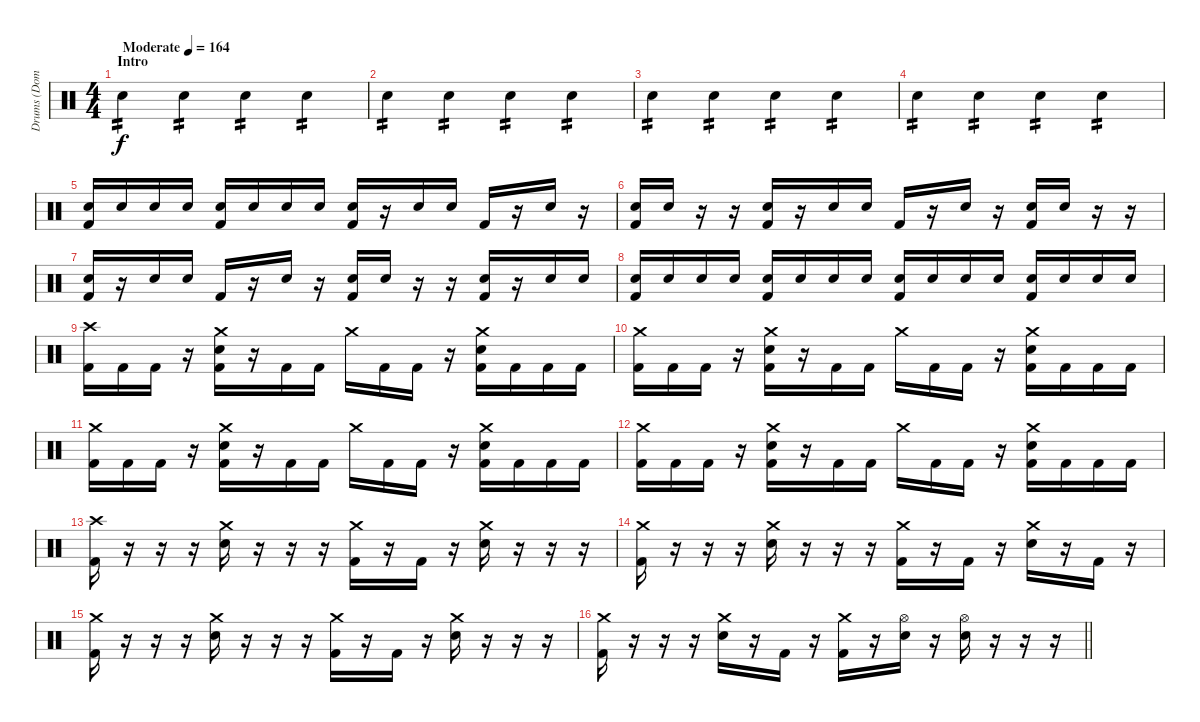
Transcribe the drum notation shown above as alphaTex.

\track ("Drums (Dominik)" "Drums (Dom") {instrument percussion}
\staff {score}
\articulation defaults
\ts (4 4)
\section ("" "Intro")
\tempo (164 "Moderate")
\clef neutral
\ks c "Electric Snare (hit)".4{tp 2 dy f} "Electric Snare (hit)".4{tp 2} "Electric Snare (hit)".4{tp 2} "Electric Snare (hit)".4{tp 2}
|
"Electric Snare (hit)".4{tp 2} "Electric Snare (hit)".4{tp 2} "Electric Snare (hit)".4{tp 2} "Electric Snare (hit)".4{tp 2} |
"Electric Snare (hit)".4{tp 2} "Electric Snare (hit)".4{tp 2} "Electric Snare (hit)".4{tp 2} "Electric Snare (hit)".4{tp 2} |
"Electric Snare (hit)".4{tp 2} "Electric Snare (hit)".4{tp 2} "Electric Snare (hit)".4{tp 2} "Electric Snare (hit)".4{tp 2} |
("Electric Snare (hit)" "Kick (hit) 2").16 "Electric Snare (hit)".16 "Electric Snare (hit)".16 "Electric Snare (hit)".16 ("Electric Snare (hit)" "Kick (hit) 2").16 "Electric Snare (hit)".16 "Electric Snare (hit)".16 "Electric Snare (hit)".16 ("Electric Snare (hit)" "Kick (hit) 2").16 r.16 "Electric Snare (hit)".16 "Electric Snare (hit)".16 "Kick (hit) 2".16 r.16 "Electric Snare (hit)".16 r.16 |
("Electric Snare (hit)" "Kick (hit) 2").16 "Electric Snare (hit)".16 r.16 r.16 ("Electric Snare (hit)" "Kick (hit) 2").16 r.16 "Electric Snare (hit)".16 "Electric Snare (hit)".16 "Kick (hit) 2".16 r.16 "Electric Snare (hit)".16 r.16 ("Electric Snare (hit)" "Kick (hit) 2").16 "Electric Snare (hit)".16 r.16 r.16 |
("Electric Snare (hit)" "Kick (hit) 2").16 r.16 "Electric Snare (hit)".16 "Electric Snare (hit)".16 "Kick (hit) 2".16 r.16 "Electric Snare (hit)".16 r.16 ("Electric Snare (hit)" "Kick (hit) 2").16 "Electric Snare (hit)".16 r.16 r.16 ("Electric Snare (hit)" "Kick (hit) 2").16 r.16 "Electric Snare (hit)".16 "Electric Snare (hit)".16 |
("Electric Snare (hit)" "Kick (hit) 2").16 "Electric Snare (hit)".16 "Electric Snare (hit)".16 "Electric Snare (hit)".16 ("Electric Snare (hit)" "Kick (hit) 2").16 "Electric Snare (hit)".16 "Electric Snare (hit)".16 "Electric Snare (hit)".16 ("Electric Snare (hit)" "Kick (hit) 2").16 "Electric Snare (hit)".16 "Electric Snare (hit)".16 "Electric Snare (hit)".16 ("Electric Snare (hit)" "Kick (hit) 2").16 "Electric Snare (hit)".16 "Electric Snare (hit)".16 "Electric Snare (hit)".16 |
("Crash high (hit)" "Kick (hit) 2").16 "Kick (hit) 2".16 "Kick (hit) 2".16 r.16 ("Crash medium (hit)" "Electric Snare (hit)" "Kick (hit) 2").16 r.16 "Kick (hit) 2".16 "Kick (hit) 2".16 "Crash medium (hit)".16 "Kick (hit) 2".16 "Kick (hit) 2".16 r.16 ("Crash medium (hit)" "Electric Snare (hit)" "Kick (hit) 2").16 "Kick (hit) 2".16 "Kick (hit) 2".16 "Kick (hit) 2".16 |
("Crash medium (hit)" "Kick (hit) 2").16 "Kick (hit) 2".16 "Kick (hit) 2".16 r.16 ("Crash medium (hit)" "Electric Snare (hit)" "Kick (hit) 2").16 r.16 "Kick (hit) 2".16 "Kick (hit) 2".16 "Crash medium (hit)".16 "Kick (hit) 2".16 "Kick (hit) 2".16 r.16 ("Crash medium (hit)" "Electric Snare (hit)" "Kick (hit) 2").16 "Kick (hit) 2".16 "Kick (hit) 2".16 "Kick (hit) 2".16 |
("Crash medium (hit)" "Kick (hit) 2").16 "Kick (hit) 2".16 "Kick (hit) 2".16 r.16 ("Crash medium (hit)" "Electric Snare (hit)" "Kick (hit) 2").16 r.16 "Kick (hit) 2".16 "Kick (hit) 2".16 "Crash medium (hit)".16 "Kick (hit) 2".16 "Kick (hit) 2".16 r.16 ("Crash medium (hit)" "Electric Snare (hit)" "Kick (hit) 2").16 "Kick (hit) 2".16 "Kick (hit) 2".16 "Kick (hit) 2".16 |
("Crash medium (hit)" "Kick (hit) 2").16 "Kick (hit) 2".16 "Kick (hit) 2".16 r.16 ("Crash medium (hit)" "Electric Snare (hit)" "Kick (hit) 2").16 r.16 "Kick (hit) 2".16 "Kick (hit) 2".16 "Crash medium (hit)".16 "Kick (hit) 2".16 "Kick (hit) 2".16 r.16 ("Crash medium (hit)" "Electric Snare (hit)" "Kick (hit) 2").16 "Kick (hit) 2".16 "Kick (hit) 2".16 "Kick (hit) 2".16 |
("Crash high (hit)" "Kick (hit) 2").16 r.16 r.16 r.16 ("Crash medium (hit)" "Electric Snare (hit)").16 r.16 r.16 r.16 ("Crash medium (hit)" "Kick (hit) 2").16 r.16 "Kick (hit) 2".16 r.16 ("Crash medium (hit)" "Electric Snare (hit)").16 r.16 r.16 r.16 |
("Crash medium (hit)" "Kick (hit) 2").16 r.16 r.16 r.16 ("Crash medium (hit)" "Electric Snare (hit)").16 r.16 r.16 r.16 ("Crash medium (hit)" "Kick (hit) 2").16 r.16 "Kick (hit) 2".16 r.16 ("Crash medium (hit)" "Electric Snare (hit)").16 r.16 "Kick (hit) 2".16 r.16 |
("Crash medium (hit)" "Kick (hit) 2").16 r.16 r.16 r.16 ("Crash medium (hit)" "Electric Snare (hit)").16 r.16 r.16 r.16 ("Crash medium (hit)" "Kick (hit) 2").16 r.16 "Kick (hit) 2".16 r.16 ("Crash medium (hit)" "Electric Snare (hit)").16 r.16 r.16 r.16 |
\barLineRight lightlight
("Crash medium (hit)" "Kick (hit) 2").16 r.16 r.16 r.16 ("Crash medium (hit)" "Electric Snare (hit)").16 r.16 "Kick (hit) 2".16 r.16 ("Crash medium (hit)" "Kick (hit) 2").16 r.16 ("Hi-Hat (open)" "Electric Snare (hit)").16 r.16 ("Hi-Hat (open)" "Electric Snare (hit)").16 r.16 r.16 r.16
